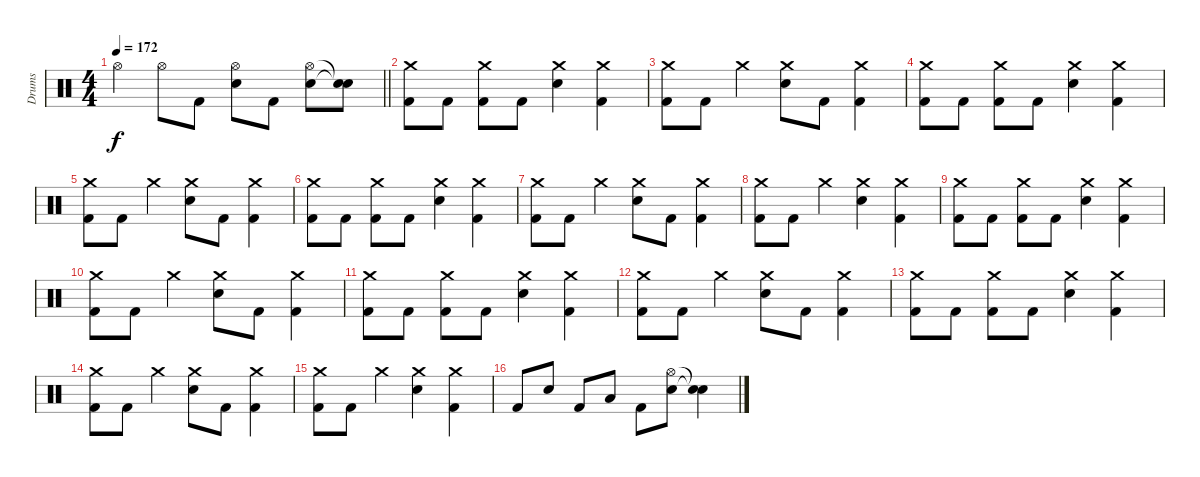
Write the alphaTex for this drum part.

\track ("Drums" "Drums") {instrument percussion}
\staff {score}
\articulation defaults
\ts (4 4)
\tempo 172
\clef neutral
\barLineRight lightlight
\ks c "Hi-Hat (open)".4{dy f} "Hi-Hat (open)".8 "Kick (hit) 2".8
("Hi-Hat (open)" "Electric Snare (hit)").8 "Kick (hit) 2".8 ("Hi-Hat (open)" "Electric Snare (hit)").8 ("Snare (hit)"{t} "Snare (hit)"{t}).8 |
("Crash medium (hit)" "Kick (hit) 2").8 "Kick (hit) 2".8 ("Crash medium (hit)" "Kick (hit) 2").8 "Kick (hit) 2".8 ("Crash medium (hit)" "Electric Snare (hit)").4 ("Crash medium (hit)" "Kick (hit) 2").4 |
("Crash medium (hit)" "Kick (hit) 2").8 "Kick (hit) 2".8 "Crash medium (hit)".4 ("Crash medium (hit)" "Electric Snare (hit)").8 "Kick (hit) 2".8 ("Crash medium (hit)" "Kick (hit) 2").4 |
("Crash medium (hit)" "Kick (hit) 2").8 "Kick (hit) 2".8 ("Crash medium (hit)" "Kick (hit) 2").8 "Kick (hit) 2".8 ("Crash medium (hit)" "Electric Snare (hit)").4 ("Crash medium (hit)" "Kick (hit) 2").4 |
("Crash medium (hit)" "Kick (hit) 2").8 "Kick (hit) 2".8 "Crash medium (hit)".4 ("Crash medium (hit)" "Electric Snare (hit)").8 "Kick (hit) 2".8 ("Crash medium (hit)" "Kick (hit) 2").4 |
("Crash medium (hit)" "Kick (hit) 2").8 "Kick (hit) 2".8 ("Crash medium (hit)" "Kick (hit) 2").8 "Kick (hit) 2".8 ("Crash medium (hit)" "Electric Snare (hit)").4 ("Crash medium (hit)" "Kick (hit) 2").4 |
("Crash medium (hit)" "Kick (hit) 2").8 "Kick (hit) 2".8 "Crash medium (hit)".4 ("Crash medium (hit)" "Electric Snare (hit)").8 "Kick (hit) 2".8 ("Crash medium (hit)" "Kick (hit) 2").4 |
("Crash medium (hit)" "Kick (hit) 2").8 "Kick (hit) 2".8 "Crash medium (hit)".4 ("Crash medium (hit)" "Electric Snare (hit)").4 ("Crash medium (hit)" "Kick (hit) 2").4 |
("Crash medium (hit)" "Kick (hit) 2").8 "Kick (hit) 2".8 ("Crash medium (hit)" "Kick (hit) 2").8 "Kick (hit) 2".8 ("Crash medium (hit)" "Electric Snare (hit)").4 ("Crash medium (hit)" "Kick (hit) 2").4 |
("Crash medium (hit)" "Kick (hit) 2").8 "Kick (hit) 2".8 "Crash medium (hit)".4 ("Crash medium (hit)" "Electric Snare (hit)").8 "Kick (hit) 2".8 ("Crash medium (hit)" "Kick (hit) 2").4 |
("Crash medium (hit)" "Kick (hit) 2").8 "Kick (hit) 2".8 ("Crash medium (hit)" "Kick (hit) 2").8 "Kick (hit) 2".8 ("Crash medium (hit)" "Electric Snare (hit)").4 ("Crash medium (hit)" "Kick (hit) 2").4 |
("Crash medium (hit)" "Kick (hit) 2").8 "Kick (hit) 2".8 "Crash medium (hit)".4 ("Crash medium (hit)" "Electric Snare (hit)").8 "Kick (hit) 2".8 ("Crash medium (hit)" "Kick (hit) 2").4 |
("Crash medium (hit)" "Kick (hit) 2").8 "Kick (hit) 2".8 ("Crash medium (hit)" "Kick (hit) 2").8 "Kick (hit) 2".8 ("Crash medium (hit)" "Electric Snare (hit)").4 ("Crash medium (hit)" "Kick (hit) 2").4 |
("Crash medium (hit)" "Kick (hit) 2").8 "Kick (hit) 2".8 "Crash medium (hit)".4 ("Crash medium (hit)" "Electric Snare (hit)").8 "Kick (hit) 2".8 ("Crash medium (hit)" "Kick (hit) 2").4 |
("Crash medium (hit)" "Kick (hit) 2").8 "Kick (hit) 2".8 "Crash medium (hit)".4 ("Crash medium (hit)" "Electric Snare (hit)").4 ("Crash medium (hit)" "Kick (hit) 2").4 |
"Kick (hit) 2".8 "Electric Snare (hit)".8 "Kick (hit) 2".8 "Low Tom (hit)".8 "Kick (hit) 2".8 ("Hi-Hat (open)" "Electric Snare (hit)").8 ("Snare (hit)"{t} "Snare (hit)"{t}).4
